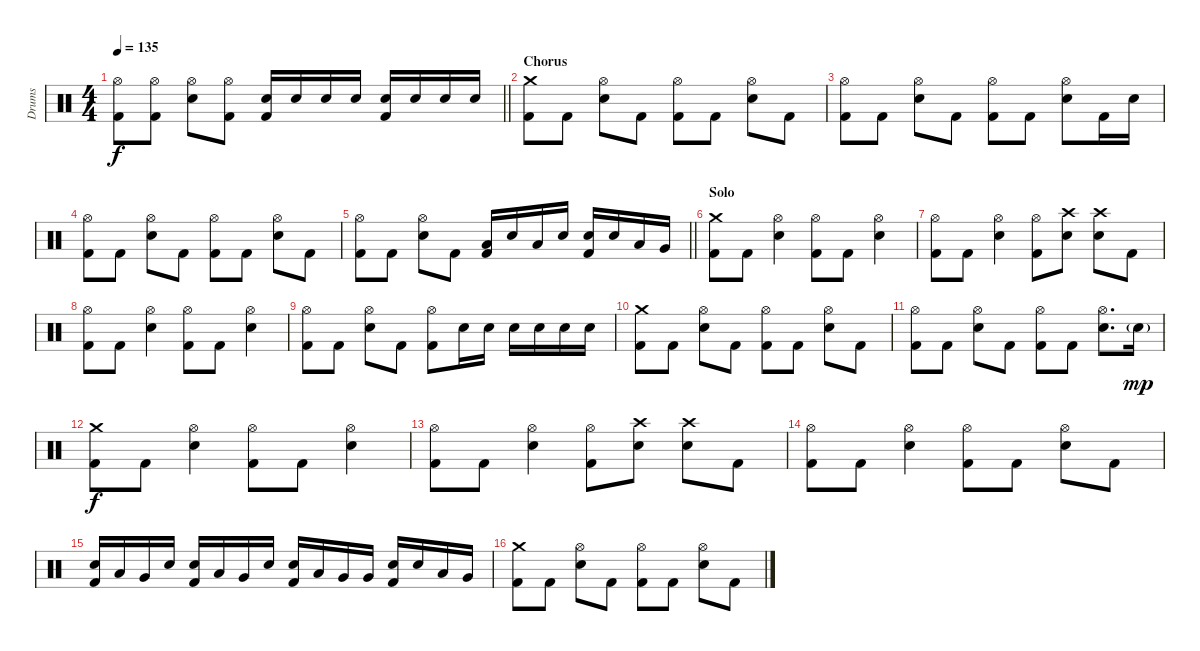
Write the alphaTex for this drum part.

\track ("Drums" "Drums") {instrument percussion}
\staff {score}
\articulation defaults
\ts (4 4)
\tempo 135
\clef neutral
\barLineRight lightlight
\ks c
("Hi-Hat (open)" "Kick (hit) 2").8{dy f} ("Hi-Hat (open)" "Kick (hit) 2").8 ("Hi-Hat (open)" "Electric Snare (hit)").8 ("Hi-Hat (open)" "Kick (hit) 2").8 ("Electric Snare (hit)" "Kick (hit) 2").16 "Electric Snare (hit)".16 "Electric Snare (hit)".16 "Electric Snare (hit)".16 ("Electric Snare (hit)" "Kick (hit) 2").16 "Electric Snare (hit)".16 "Electric Snare (hit)".16 "Electric Snare (hit)".16 |
\section ("" "Chorus")
("Crash medium (hit)" "Kick (hit) 2").8 "Kick (hit) 2".8 ("Hi-Hat (open)" "Electric Snare (hit)").8 "Kick (hit) 2".8 ("Hi-Hat (open)" "Kick (hit) 2").8 "Kick (hit) 2".8 ("Hi-Hat (open)" "Electric Snare (hit)").8 "Kick (hit) 2".8 |
("Hi-Hat (open)" "Kick (hit) 2").8 "Kick (hit) 2".8 ("Hi-Hat (open)" "Electric Snare (hit)").8 "Kick (hit) 2".8 ("Hi-Hat (open)" "Kick (hit) 2").8 "Kick (hit) 2".8 ("Hi-Hat (open)" "Electric Snare (hit)").8 "Kick (hit) 2".16 "Electric Snare (hit)".16 |
("Hi-Hat (open)" "Kick (hit) 2").8 "Kick (hit) 2".8 ("Hi-Hat (open)" "Electric Snare (hit)").8 "Kick (hit) 2".8 ("Hi-Hat (open)" "Kick (hit) 2").8 "Kick (hit) 2".8 ("Hi-Hat (open)" "Electric Snare (hit)").8 "Kick (hit) 2".8 |
\barLineRight lightlight
("Hi-Hat (open)" "Kick (hit) 2").8 "Kick (hit) 2".8 ("Hi-Hat (open)" "Electric Snare (hit)").8 "Kick (hit) 2".8 ("Low Tom (hit)" "Kick (hit) 2").16 "Electric Snare (hit)".16 "Low Floor Tom (hit)".16 "Electric Snare (hit)".16 ("Electric Snare (hit)" "Kick (hit) 2").16 "Electric Snare (hit)".16 "Low Tom (hit)".16 "Very Low Tom (hit)".16 |
\section ("" "Solo")
("Crash medium (hit)" "Kick (hit) 2").8 "Kick (hit) 2".8 ("Hi-Hat (open)" "Electric Snare (hit)").4 ("Hi-Hat (open)" "Kick (hit) 2").8 "Kick (hit) 2".8 ("Hi-Hat (open)" "Electric Snare (hit)").4 |
("Hi-Hat (open)" "Kick (hit) 2").8 "Kick (hit) 2".8 ("Hi-Hat (open)" "Electric Snare (hit)").4 ("Hi-Hat (open)" "Kick (hit) 2").8 ("Crash high (hit)" "Electric Snare (hit)").8 ("Crash high (hit)" "Electric Snare (hit)").8 "Kick (hit) 2".8 |
("Hi-Hat (open)" "Kick (hit) 2").8 "Kick (hit) 2".8 ("Hi-Hat (open)" "Electric Snare (hit)").4 ("Hi-Hat (open)" "Kick (hit) 2").8 "Kick (hit) 2".8 ("Hi-Hat (open)" "Electric Snare (hit)").4 |
("Hi-Hat (open)" "Kick (hit) 2").8 "Kick (hit) 2".8 ("Hi-Hat (open)" "Electric Snare (hit)").8 "Kick (hit) 2".8 ("Hi-Hat (open)" "Kick (hit) 2").8 "Electric Snare (hit)".16 "Electric Snare (hit)".16 "Electric Snare (hit)".16 "Electric Snare (hit)".16 "Electric Snare (hit)".16 "Electric Snare (hit)".16 |
("Crash medium (hit)" "Kick (hit) 2").8 "Kick (hit) 2".8 ("Hi-Hat (open)" "Electric Snare (hit)").8 "Kick (hit) 2".8 ("Hi-Hat (open)" "Kick (hit) 2").8 "Kick (hit) 2".8 ("Hi-Hat (open)" "Electric Snare (hit)").8 "Kick (hit) 2".8 |
("Hi-Hat (open)" "Kick (hit) 2").8 "Kick (hit) 2".8 ("Hi-Hat (open)" "Electric Snare (hit)").8 "Kick (hit) 2".8 ("Hi-Hat (open)" "Kick (hit) 2").8 "Kick (hit) 2".8 ("Hi-Hat (open)" "Electric Snare (hit)").8{d} "Electric Snare (hit)"{g}.16{dy mp} |
("Crash medium (hit)" "Kick (hit) 2").8{dy f} "Kick (hit) 2".8 ("Hi-Hat (open)" "Electric Snare (hit)").4 ("Hi-Hat (open)" "Kick (hit) 2").8 "Kick (hit) 2".8 ("Hi-Hat (open)" "Electric Snare (hit)").4 |
("Hi-Hat (open)" "Kick (hit) 2").8 "Kick (hit) 2".8 ("Hi-Hat (open)" "Electric Snare (hit)").4 ("Hi-Hat (open)" "Kick (hit) 2").8 ("Crash high (hit)" "Electric Snare (hit)").8 ("Crash high (hit)" "Electric Snare (hit)").8 "Kick (hit) 2".8 |
("Hi-Hat (open)" "Kick (hit) 2").8 "Kick (hit) 2".8 ("Hi-Hat (open)" "Electric Snare (hit)").4 ("Hi-Hat (open)" "Kick (hit) 2").8 "Kick (hit) 2".8 ("Hi-Hat (open)" "Electric Snare (hit)").8 "Kick (hit) 2".8 |
("Electric Snare (hit)" "Kick (hit) 2").16 "Low Tom (hit)".16 "Very Low Tom (hit)".16 "Electric Snare (hit)".16 ("Electric Snare (hit)" "Kick (hit) 2").16 "Low Tom (hit)".16 "Very Low Tom (hit)".16 "Electric Snare (hit)".16 ("Electric Snare (hit)" "Kick (hit) 2").16 "Low Tom (hit)".16 "Very Low Tom (hit)".16 "Very Low Tom (hit)".16 ("Electric Snare (hit)" "Kick (hit) 2").16 "Electric Snare (hit)".16 "Low Tom (hit)".16 "Very Low Tom (hit)".16 |
("Crash medium (hit)" "Kick (hit) 2").8 "Kick (hit) 2".8 ("Hi-Hat (open)" "Electric Snare (hit)").8 "Kick (hit) 2".8 ("Hi-Hat (open)" "Kick (hit) 2").8 "Kick (hit) 2".8 ("Hi-Hat (open)" "Electric Snare (hit)").8 "Kick (hit) 2".8
